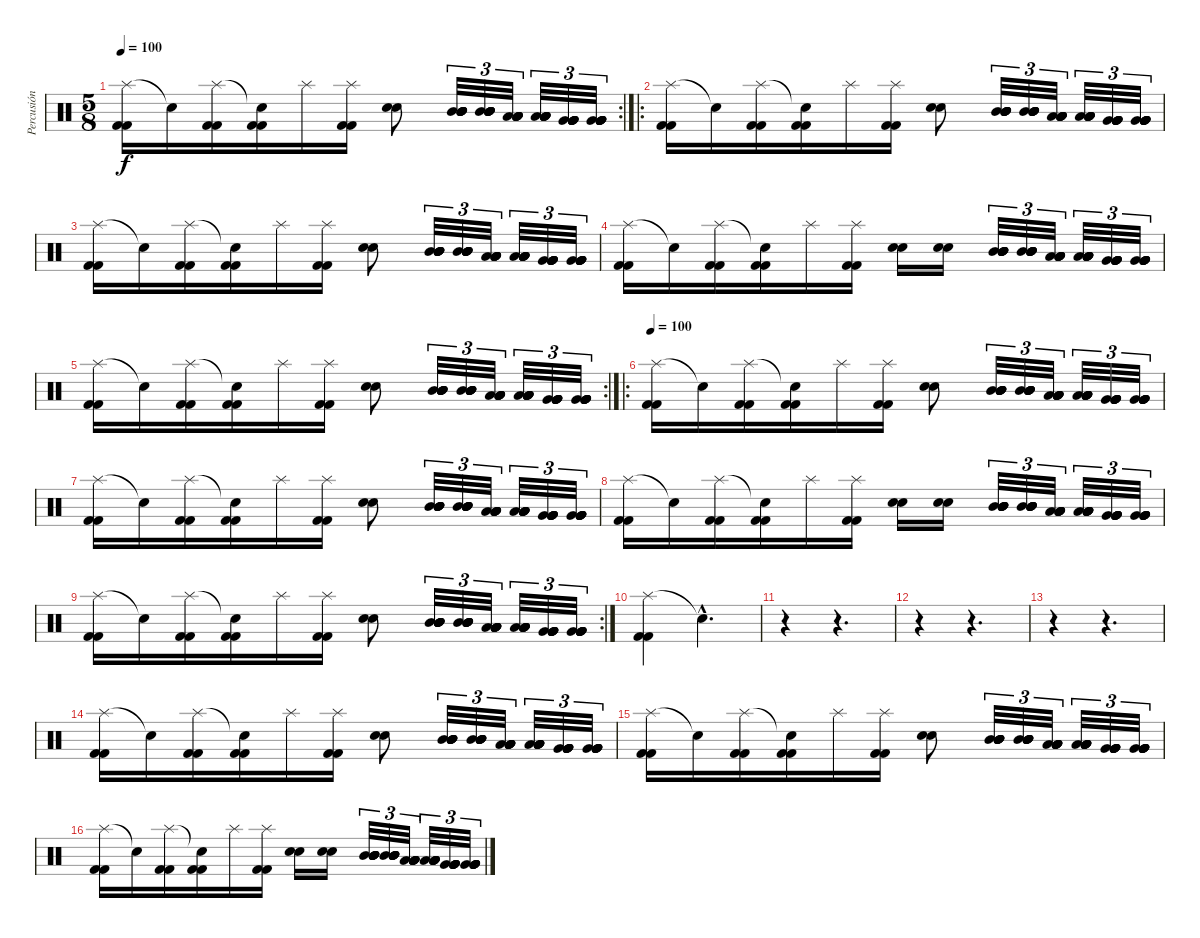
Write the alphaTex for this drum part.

\track ("Percusión" "Percusión") {instrument percussion}
\staff {score}
\articulation defaults
\rc 2
\ts (5 8)
\tempo 100
\clef neutral
\ks c
("Splash (hit)" "Kick (hit) 2" "Kick (hit) 2").16{dy f} "Snare (hit)"{t}.16 ("Splash (hit)" "Kick (hit) 2" "Kick (hit) 2").16 ("Snare (hit)"{t} "Kick (hit) 2" "Kick (hit) 2").16 "Splash (hit)".16 ("Splash (hit)" "Kick (hit) 2" "Kick (hit) 2").16 ("Electric Snare (hit)" "Electric Snare (hit)").8 ("Mid Tom (hit)" "Mid Tom (hit)" "Mid Tom (hit)" "Mid Tom (hit)" "Mid Tom (hit)" "Mid Tom (hit)").32{tu (3 2)} ("Mid Tom (hit)" "Mid Tom (hit)" "Mid Tom (hit)" "Mid Tom (hit)" "Mid Tom (hit)" "Mid Tom (hit)").32{tu (3 2)} ("Low Tom (hit)" "Low Tom (hit)" "Low Tom (hit)" "Low Tom (hit)" "Low Tom (hit)" "Low Tom (hit)").32{tu (3 2)} ("Low Tom (hit)" "Low Tom (hit)" "Low Tom (hit)" "Low Tom (hit)" "Low Tom (hit)" "Low Tom (hit)").32{tu (3 2)} ("Very Low Tom (hit)" "Very Low Tom (hit)" "Very Low Tom (hit)" "Very Low Tom (hit)" "Very Low Tom (hit)" "Very Low Tom (hit)").32{tu (3 2)} ("Very Low Tom (hit)" "Very Low Tom (hit)" "Very Low Tom (hit)" "Very Low Tom (hit)" "Very Low Tom (hit)" "Very Low Tom (hit)").32{tu (3 2)} |
\ro
("Splash (hit)" "Kick (hit) 2" "Kick (hit) 2").16 "Snare (hit)"{t}.16 ("Splash (hit)" "Kick (hit) 2" "Kick (hit) 2").16 ("Snare (hit)"{t} "Kick (hit) 2" "Kick (hit) 2").16 "Splash (hit)".16 ("Splash (hit)" "Kick (hit) 2" "Kick (hit) 2").16 ("Electric Snare (hit)" "Electric Snare (hit)").8 ("Mid Tom (hit)" "Mid Tom (hit)" "Mid Tom (hit)" "Mid Tom (hit)" "Mid Tom (hit)" "Mid Tom (hit)").32{tu (3 2)} ("Mid Tom (hit)" "Mid Tom (hit)" "Mid Tom (hit)" "Mid Tom (hit)" "Mid Tom (hit)" "Mid Tom (hit)").32{tu (3 2)} ("Low Tom (hit)" "Low Tom (hit)" "Low Tom (hit)" "Low Tom (hit)" "Low Tom (hit)" "Low Tom (hit)").32{tu (3 2)} ("Low Tom (hit)" "Low Tom (hit)" "Low Tom (hit)" "Low Tom (hit)" "Low Tom (hit)" "Low Tom (hit)").32{tu (3 2)} ("Very Low Tom (hit)" "Very Low Tom (hit)" "Very Low Tom (hit)" "Very Low Tom (hit)" "Very Low Tom (hit)" "Very Low Tom (hit)").32{tu (3 2)} ("Very Low Tom (hit)" "Very Low Tom (hit)" "Very Low Tom (hit)" "Very Low Tom (hit)" "Very Low Tom (hit)" "Very Low Tom (hit)").32{tu (3 2)} |
("Splash (hit)" "Kick (hit) 2" "Kick (hit) 2").16 "Snare (hit)"{t}.16 ("Splash (hit)" "Kick (hit) 2" "Kick (hit) 2").16 ("Snare (hit)"{t} "Kick (hit) 2" "Kick (hit) 2").16 "Splash (hit)".16 ("Splash (hit)" "Kick (hit) 2" "Kick (hit) 2").16 ("Electric Snare (hit)" "Electric Snare (hit)").8 ("Mid Tom (hit)" "Mid Tom (hit)" "Mid Tom (hit)" "Mid Tom (hit)" "Mid Tom (hit)" "Mid Tom (hit)").32{tu (3 2)} ("Mid Tom (hit)" "Mid Tom (hit)" "Mid Tom (hit)" "Mid Tom (hit)" "Mid Tom (hit)" "Mid Tom (hit)").32{tu (3 2)} ("Low Tom (hit)" "Low Tom (hit)" "Low Tom (hit)" "Low Tom (hit)" "Low Tom (hit)" "Low Tom (hit)").32{tu (3 2)} ("Low Tom (hit)" "Low Tom (hit)" "Low Tom (hit)" "Low Tom (hit)" "Low Tom (hit)" "Low Tom (hit)").32{tu (3 2)} ("Very Low Tom (hit)" "Very Low Tom (hit)" "Very Low Tom (hit)" "Very Low Tom (hit)" "Very Low Tom (hit)" "Very Low Tom (hit)").32{tu (3 2)} ("Very Low Tom (hit)" "Very Low Tom (hit)" "Very Low Tom (hit)" "Very Low Tom (hit)" "Very Low Tom (hit)" "Very Low Tom (hit)").32{tu (3 2)} |
("Splash (hit)" "Kick (hit) 2" "Kick (hit) 2").16 "Snare (hit)"{t}.16 ("Splash (hit)" "Kick (hit) 2" "Kick (hit) 2").16 ("Snare (hit)"{t} "Kick (hit) 2" "Kick (hit) 2").16 "Splash (hit)".16 ("Splash (hit)" "Kick (hit) 2" "Kick (hit) 2").16 ("Electric Snare (hit)" "Electric Snare (hit)").16 ("Electric Snare (hit)" "Electric Snare (hit)").16 ("Mid Tom (hit)" "Mid Tom (hit)" "Mid Tom (hit)" "Mid Tom (hit)" "Mid Tom (hit)" "Mid Tom (hit)").32{tu (3 2)} ("Mid Tom (hit)" "Mid Tom (hit)" "Mid Tom (hit)" "Mid Tom (hit)" "Mid Tom (hit)" "Mid Tom (hit)").32{tu (3 2)} ("Low Tom (hit)" "Low Tom (hit)" "Low Tom (hit)" "Low Tom (hit)" "Low Tom (hit)" "Low Tom (hit)").32{tu (3 2)} ("Low Tom (hit)" "Low Tom (hit)" "Low Tom (hit)" "Low Tom (hit)" "Low Tom (hit)" "Low Tom (hit)").32{tu (3 2)} ("Very Low Tom (hit)" "Very Low Tom (hit)" "Very Low Tom (hit)" "Very Low Tom (hit)" "Very Low Tom (hit)" "Very Low Tom (hit)").32{tu (3 2)} ("Very Low Tom (hit)" "Very Low Tom (hit)" "Very Low Tom (hit)" "Very Low Tom (hit)" "Very Low Tom (hit)" "Very Low Tom (hit)").32{tu (3 2)} |
\rc 2
("Splash (hit)" "Kick (hit) 2" "Kick (hit) 2").16 "Snare (hit)"{t}.16 ("Splash (hit)" "Kick (hit) 2" "Kick (hit) 2").16 ("Snare (hit)"{t} "Kick (hit) 2" "Kick (hit) 2").16 "Splash (hit)".16 ("Splash (hit)" "Kick (hit) 2" "Kick (hit) 2").16 ("Electric Snare (hit)" "Electric Snare (hit)").8 ("Mid Tom (hit)" "Mid Tom (hit)" "Mid Tom (hit)" "Mid Tom (hit)" "Mid Tom (hit)" "Mid Tom (hit)").32{tu (3 2)} ("Mid Tom (hit)" "Mid Tom (hit)" "Mid Tom (hit)" "Mid Tom (hit)" "Mid Tom (hit)" "Mid Tom (hit)").32{tu (3 2)} ("Low Tom (hit)" "Low Tom (hit)" "Low Tom (hit)" "Low Tom (hit)" "Low Tom (hit)" "Low Tom (hit)").32{tu (3 2)} ("Low Tom (hit)" "Low Tom (hit)" "Low Tom (hit)" "Low Tom (hit)" "Low Tom (hit)" "Low Tom (hit)").32{tu (3 2)} ("Very Low Tom (hit)" "Very Low Tom (hit)" "Very Low Tom (hit)" "Very Low Tom (hit)" "Very Low Tom (hit)" "Very Low Tom (hit)").32{tu (3 2)} ("Very Low Tom (hit)" "Very Low Tom (hit)" "Very Low Tom (hit)" "Very Low Tom (hit)" "Very Low Tom (hit)" "Very Low Tom (hit)").32{tu (3 2)} |
\ro
\tempo 100
("Splash (hit)" "Kick (hit) 2" "Kick (hit) 2").16 "Snare (hit)"{t}.16 ("Splash (hit)" "Kick (hit) 2" "Kick (hit) 2").16 ("Snare (hit)"{t} "Kick (hit) 2" "Kick (hit) 2").16 "Splash (hit)".16 ("Splash (hit)" "Kick (hit) 2" "Kick (hit) 2").16 ("Electric Snare (hit)" "Electric Snare (hit)").8 ("Mid Tom (hit)" "Mid Tom (hit)" "Mid Tom (hit)" "Mid Tom (hit)" "Mid Tom (hit)" "Mid Tom (hit)").32{tu (3 2)} ("Mid Tom (hit)" "Mid Tom (hit)" "Mid Tom (hit)" "Mid Tom (hit)" "Mid Tom (hit)" "Mid Tom (hit)").32{tu (3 2)} ("Low Tom (hit)" "Low Tom (hit)" "Low Tom (hit)" "Low Tom (hit)" "Low Tom (hit)" "Low Tom (hit)").32{tu (3 2)} ("Low Tom (hit)" "Low Tom (hit)" "Low Tom (hit)" "Low Tom (hit)" "Low Tom (hit)" "Low Tom (hit)").32{tu (3 2)} ("Very Low Tom (hit)" "Very Low Tom (hit)" "Very Low Tom (hit)" "Very Low Tom (hit)" "Very Low Tom (hit)" "Very Low Tom (hit)").32{tu (3 2)} ("Very Low Tom (hit)" "Very Low Tom (hit)" "Very Low Tom (hit)" "Very Low Tom (hit)" "Very Low Tom (hit)" "Very Low Tom (hit)").32{tu (3 2)} |
("Splash (hit)" "Kick (hit) 2" "Kick (hit) 2").16 "Snare (hit)"{t}.16 ("Splash (hit)" "Kick (hit) 2" "Kick (hit) 2").16 ("Snare (hit)"{t} "Kick (hit) 2" "Kick (hit) 2").16 "Splash (hit)".16 ("Splash (hit)" "Kick (hit) 2" "Kick (hit) 2").16 ("Electric Snare (hit)" "Electric Snare (hit)").8 ("Mid Tom (hit)" "Mid Tom (hit)" "Mid Tom (hit)" "Mid Tom (hit)" "Mid Tom (hit)" "Mid Tom (hit)").32{tu (3 2)} ("Mid Tom (hit)" "Mid Tom (hit)" "Mid Tom (hit)" "Mid Tom (hit)" "Mid Tom (hit)" "Mid Tom (hit)").32{tu (3 2)} ("Low Tom (hit)" "Low Tom (hit)" "Low Tom (hit)" "Low Tom (hit)" "Low Tom (hit)" "Low Tom (hit)").32{tu (3 2)} ("Low Tom (hit)" "Low Tom (hit)" "Low Tom (hit)" "Low Tom (hit)" "Low Tom (hit)" "Low Tom (hit)").32{tu (3 2)} ("Very Low Tom (hit)" "Very Low Tom (hit)" "Very Low Tom (hit)" "Very Low Tom (hit)" "Very Low Tom (hit)" "Very Low Tom (hit)").32{tu (3 2)} ("Very Low Tom (hit)" "Very Low Tom (hit)" "Very Low Tom (hit)" "Very Low Tom (hit)" "Very Low Tom (hit)" "Very Low Tom (hit)").32{tu (3 2)} |
("Splash (hit)" "Kick (hit) 2" "Kick (hit) 2").16 "Snare (hit)"{t}.16 ("Splash (hit)" "Kick (hit) 2" "Kick (hit) 2").16 ("Snare (hit)"{t} "Kick (hit) 2" "Kick (hit) 2").16 "Splash (hit)".16 ("Splash (hit)" "Kick (hit) 2" "Kick (hit) 2").16 ("Electric Snare (hit)" "Electric Snare (hit)").16 ("Electric Snare (hit)" "Electric Snare (hit)").16 ("Mid Tom (hit)" "Mid Tom (hit)" "Mid Tom (hit)" "Mid Tom (hit)" "Mid Tom (hit)" "Mid Tom (hit)").32{tu (3 2)} ("Mid Tom (hit)" "Mid Tom (hit)" "Mid Tom (hit)" "Mid Tom (hit)" "Mid Tom (hit)" "Mid Tom (hit)").32{tu (3 2)} ("Low Tom (hit)" "Low Tom (hit)" "Low Tom (hit)" "Low Tom (hit)" "Low Tom (hit)" "Low Tom (hit)").32{tu (3 2)} ("Low Tom (hit)" "Low Tom (hit)" "Low Tom (hit)" "Low Tom (hit)" "Low Tom (hit)" "Low Tom (hit)").32{tu (3 2)} ("Very Low Tom (hit)" "Very Low Tom (hit)" "Very Low Tom (hit)" "Very Low Tom (hit)" "Very Low Tom (hit)" "Very Low Tom (hit)").32{tu (3 2)} ("Very Low Tom (hit)" "Very Low Tom (hit)" "Very Low Tom (hit)" "Very Low Tom (hit)" "Very Low Tom (hit)" "Very Low Tom (hit)").32{tu (3 2)} |
\rc 2
("Splash (hit)" "Kick (hit) 2" "Kick (hit) 2").16 "Snare (hit)"{t}.16 ("Splash (hit)" "Kick (hit) 2" "Kick (hit) 2").16 ("Snare (hit)"{t} "Kick (hit) 2" "Kick (hit) 2").16 "Splash (hit)".16 ("Splash (hit)" "Kick (hit) 2" "Kick (hit) 2").16 ("Electric Snare (hit)" "Electric Snare (hit)").8 ("Mid Tom (hit)" "Mid Tom (hit)" "Mid Tom (hit)" "Mid Tom (hit)" "Mid Tom (hit)" "Mid Tom (hit)").32{tu (3 2)} ("Mid Tom (hit)" "Mid Tom (hit)" "Mid Tom (hit)" "Mid Tom (hit)" "Mid Tom (hit)" "Mid Tom (hit)").32{tu (3 2)} ("Low Tom (hit)" "Low Tom (hit)" "Low Tom (hit)" "Low Tom (hit)" "Low Tom (hit)" "Low Tom (hit)").32{tu (3 2)} ("Low Tom (hit)" "Low Tom (hit)" "Low Tom (hit)" "Low Tom (hit)" "Low Tom (hit)" "Low Tom (hit)").32{tu (3 2)} ("Very Low Tom (hit)" "Very Low Tom (hit)" "Very Low Tom (hit)" "Very Low Tom (hit)" "Very Low Tom (hit)" "Very Low Tom (hit)").32{tu (3 2)} ("Very Low Tom (hit)" "Very Low Tom (hit)" "Very Low Tom (hit)" "Very Low Tom (hit)" "Very Low Tom (hit)" "Very Low Tom (hit)").32{tu (3 2)} |
("Splash (hit)" "Kick (hit) 2" "Kick (hit) 2").4 "Snare (hit)"{hac t}.4{d} |
r.4 r.4{d} |
r.4 r.4{d} |
r.4 r.4{d} |
("Splash (hit)" "Kick (hit) 2" "Kick (hit) 2").16 "Snare (hit)"{t}.16 ("Splash (hit)" "Kick (hit) 2" "Kick (hit) 2").16 ("Snare (hit)"{t} "Kick (hit) 2" "Kick (hit) 2").16 "Splash (hit)".16 ("Splash (hit)" "Kick (hit) 2" "Kick (hit) 2").16 ("Electric Snare (hit)" "Electric Snare (hit)").8 ("Mid Tom (hit)" "Mid Tom (hit)" "Mid Tom (hit)" "Mid Tom (hit)" "Mid Tom (hit)" "Mid Tom (hit)").32{tu (3 2)} ("Mid Tom (hit)" "Mid Tom (hit)" "Mid Tom (hit)" "Mid Tom (hit)" "Mid Tom (hit)" "Mid Tom (hit)").32{tu (3 2)} ("Low Tom (hit)" "Low Tom (hit)" "Low Tom (hit)" "Low Tom (hit)" "Low Tom (hit)" "Low Tom (hit)").32{tu (3 2)} ("Low Tom (hit)" "Low Tom (hit)" "Low Tom (hit)" "Low Tom (hit)" "Low Tom (hit)" "Low Tom (hit)").32{tu (3 2)} ("Very Low Tom (hit)" "Very Low Tom (hit)" "Very Low Tom (hit)" "Very Low Tom (hit)" "Very Low Tom (hit)" "Very Low Tom (hit)").32{tu (3 2)} ("Very Low Tom (hit)" "Very Low Tom (hit)" "Very Low Tom (hit)" "Very Low Tom (hit)" "Very Low Tom (hit)" "Very Low Tom (hit)").32{tu (3 2)} |
("Splash (hit)" "Kick (hit) 2" "Kick (hit) 2").16 "Snare (hit)"{t}.16 ("Splash (hit)" "Kick (hit) 2" "Kick (hit) 2").16 ("Snare (hit)"{t} "Kick (hit) 2" "Kick (hit) 2").16 "Splash (hit)".16 ("Splash (hit)" "Kick (hit) 2" "Kick (hit) 2").16 ("Electric Snare (hit)" "Electric Snare (hit)").8 ("Mid Tom (hit)" "Mid Tom (hit)" "Mid Tom (hit)" "Mid Tom (hit)" "Mid Tom (hit)" "Mid Tom (hit)").32{tu (3 2)} ("Mid Tom (hit)" "Mid Tom (hit)" "Mid Tom (hit)" "Mid Tom (hit)" "Mid Tom (hit)" "Mid Tom (hit)").32{tu (3 2)} ("Low Tom (hit)" "Low Tom (hit)" "Low Tom (hit)" "Low Tom (hit)" "Low Tom (hit)" "Low Tom (hit)").32{tu (3 2)} ("Low Tom (hit)" "Low Tom (hit)" "Low Tom (hit)" "Low Tom (hit)" "Low Tom (hit)" "Low Tom (hit)").32{tu (3 2)} ("Very Low Tom (hit)" "Very Low Tom (hit)" "Very Low Tom (hit)" "Very Low Tom (hit)" "Very Low Tom (hit)" "Very Low Tom (hit)").32{tu (3 2)} ("Very Low Tom (hit)" "Very Low Tom (hit)" "Very Low Tom (hit)" "Very Low Tom (hit)" "Very Low Tom (hit)" "Very Low Tom (hit)").32{tu (3 2)} |
("Splash (hit)" "Kick (hit) 2" "Kick (hit) 2").16 "Snare (hit)"{t}.16 ("Splash (hit)" "Kick (hit) 2" "Kick (hit) 2").16 ("Snare (hit)"{t} "Kick (hit) 2" "Kick (hit) 2").16 "Splash (hit)".16 ("Splash (hit)" "Kick (hit) 2" "Kick (hit) 2").16 ("Electric Snare (hit)" "Electric Snare (hit)").16 ("Electric Snare (hit)" "Electric Snare (hit)").16 ("Mid Tom (hit)" "Mid Tom (hit)" "Mid Tom (hit)" "Mid Tom (hit)" "Mid Tom (hit)" "Mid Tom (hit)").32{tu (3 2)} ("Mid Tom (hit)" "Mid Tom (hit)" "Mid Tom (hit)" "Mid Tom (hit)" "Mid Tom (hit)" "Mid Tom (hit)").32{tu (3 2)} ("Low Tom (hit)" "Low Tom (hit)" "Low Tom (hit)" "Low Tom (hit)" "Low Tom (hit)" "Low Tom (hit)").32{tu (3 2)} ("Low Tom (hit)" "Low Tom (hit)" "Low Tom (hit)" "Low Tom (hit)" "Low Tom (hit)" "Low Tom (hit)").32{tu (3 2)} ("Very Low Tom (hit)" "Very Low Tom (hit)" "Very Low Tom (hit)" "Very Low Tom (hit)" "Very Low Tom (hit)" "Very Low Tom (hit)").32{tu (3 2)} ("Very Low Tom (hit)" "Very Low Tom (hit)" "Very Low Tom (hit)" "Very Low Tom (hit)" "Very Low Tom (hit)" "Very Low Tom (hit)").32{tu (3 2)}
